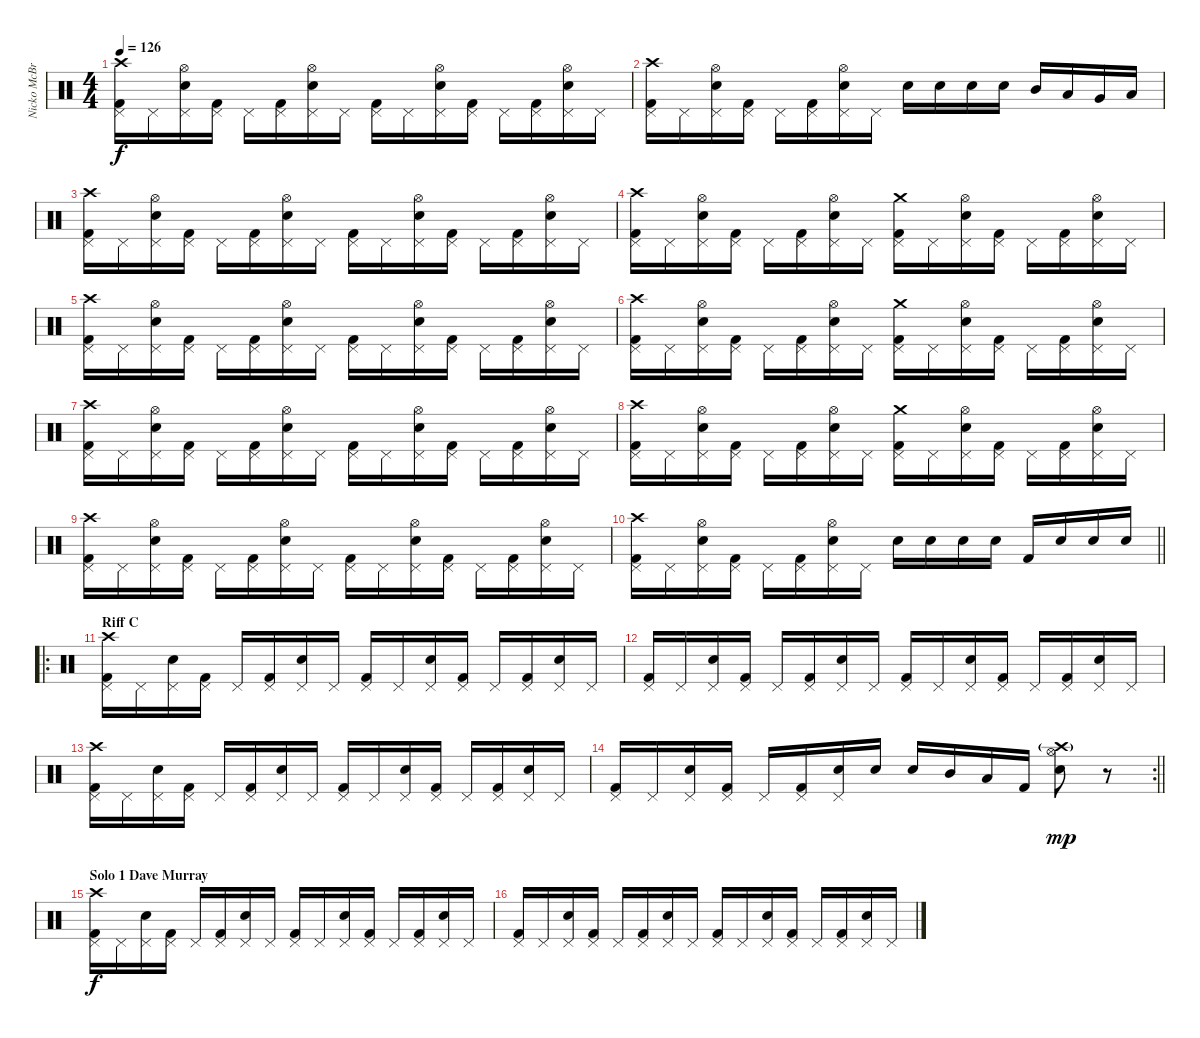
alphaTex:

\track ("Nicko McBrain" "Nicko McBr") {instrument percussion}
\staff {score}
\articulation defaults
\ts (4 4)
\tempo 126
\clef neutral
\ks c
("Kick (hit) 2" "Pedal Hi-Hat (hit)" "Crash high (hit)").16{dy f} "Pedal Hi-Hat (hit)".16 ("Snare (hit) 2" "Pedal Hi-Hat (hit)" "Hi-Hat (open)").16 ("Kick (hit) 2" "Pedal Hi-Hat (hit)").16 "Pedal Hi-Hat (hit)".16 ("Kick (hit) 2" "Pedal Hi-Hat (hit)").16 ("Snare (hit) 2" "Pedal Hi-Hat (hit)" "Hi-Hat (open)").16 "Pedal Hi-Hat (hit)".16 ("Kick (hit) 2" "Pedal Hi-Hat (hit)").16 "Pedal Hi-Hat (hit)".16 ("Snare (hit) 2" "Pedal Hi-Hat (hit)" "Hi-Hat (open)").16 ("Kick (hit) 2" "Pedal Hi-Hat (hit)").16 "Pedal Hi-Hat (hit)".16 ("Kick (hit) 2" "Pedal Hi-Hat (hit)").16 ("Snare (hit) 2" "Pedal Hi-Hat (hit)" "Hi-Hat (open)").16 "Pedal Hi-Hat (hit)".16 |
("Kick (hit) 2" "Pedal Hi-Hat (hit)" "Crash high (hit)").16 "Pedal Hi-Hat (hit)".16 ("Snare (hit) 2" "Pedal Hi-Hat (hit)" "Hi-Hat (open)").16 ("Kick (hit) 2" "Pedal Hi-Hat (hit)").16 "Pedal Hi-Hat (hit)".16 ("Kick (hit) 2" "Pedal Hi-Hat (hit)").16 ("Snare (hit) 2" "Pedal Hi-Hat (hit)" "Hi-Hat (open)").16 "Pedal Hi-Hat (hit)".16 "Snare (hit) 2".16 "Snare (hit) 2".16 "Snare (hit) 2".16 "Snare (hit) 2".16 "Mid Tom (hit)".16 "Low Tom (hit)".16 "Very Low Tom (hit)".16 "Low Floor Tom (hit)".16 |
("Kick (hit) 2" "Pedal Hi-Hat (hit)" "Crash high (hit)").16 "Pedal Hi-Hat (hit)".16 ("Snare (hit) 2" "Pedal Hi-Hat (hit)" "Hi-Hat (open)").16 ("Kick (hit) 2" "Pedal Hi-Hat (hit)").16 "Pedal Hi-Hat (hit)".16 ("Kick (hit) 2" "Pedal Hi-Hat (hit)").16 ("Snare (hit) 2" "Pedal Hi-Hat (hit)" "Hi-Hat (open)").16 "Pedal Hi-Hat (hit)".16 ("Kick (hit) 2" "Pedal Hi-Hat (hit)").16 "Pedal Hi-Hat (hit)".16 ("Snare (hit) 2" "Pedal Hi-Hat (hit)" "Hi-Hat (open)").16 ("Kick (hit) 2" "Pedal Hi-Hat (hit)").16 "Pedal Hi-Hat (hit)".16 ("Kick (hit) 2" "Pedal Hi-Hat (hit)").16 ("Snare (hit) 2" "Pedal Hi-Hat (hit)" "Hi-Hat (open)").16 "Pedal Hi-Hat (hit)".16 |
("Kick (hit) 2" "Pedal Hi-Hat (hit)" "Crash high (hit)").16 "Pedal Hi-Hat (hit)".16 ("Snare (hit) 2" "Pedal Hi-Hat (hit)" "Hi-Hat (open)").16 ("Kick (hit) 2" "Pedal Hi-Hat (hit)").16 "Pedal Hi-Hat (hit)".16 ("Kick (hit) 2" "Pedal Hi-Hat (hit)").16 ("Snare (hit) 2" "Pedal Hi-Hat (hit)" "Hi-Hat (open)").16 "Pedal Hi-Hat (hit)".16 ("Kick (hit) 2" "Pedal Hi-Hat (hit)" "Crash medium (hit)").16 "Pedal Hi-Hat (hit)".16 ("Snare (hit) 2" "Pedal Hi-Hat (hit)" "Hi-Hat (open)").16 ("Kick (hit) 2" "Pedal Hi-Hat (hit)").16 "Pedal Hi-Hat (hit)".16 ("Kick (hit) 2" "Pedal Hi-Hat (hit)").16 ("Snare (hit) 2" "Pedal Hi-Hat (hit)" "Hi-Hat (open)").16 "Pedal Hi-Hat (hit)".16 |
("Kick (hit) 2" "Pedal Hi-Hat (hit)" "Crash high (hit)").16 "Pedal Hi-Hat (hit)".16 ("Snare (hit) 2" "Pedal Hi-Hat (hit)" "Hi-Hat (open)").16 ("Kick (hit) 2" "Pedal Hi-Hat (hit)").16 "Pedal Hi-Hat (hit)".16 ("Kick (hit) 2" "Pedal Hi-Hat (hit)").16 ("Snare (hit) 2" "Pedal Hi-Hat (hit)" "Hi-Hat (open)").16 "Pedal Hi-Hat (hit)".16 ("Kick (hit) 2" "Pedal Hi-Hat (hit)").16 "Pedal Hi-Hat (hit)".16 ("Snare (hit) 2" "Pedal Hi-Hat (hit)" "Hi-Hat (open)").16 ("Kick (hit) 2" "Pedal Hi-Hat (hit)").16 "Pedal Hi-Hat (hit)".16 ("Kick (hit) 2" "Pedal Hi-Hat (hit)").16 ("Snare (hit) 2" "Pedal Hi-Hat (hit)" "Hi-Hat (open)").16 "Pedal Hi-Hat (hit)".16 |
("Kick (hit) 2" "Pedal Hi-Hat (hit)" "Crash high (hit)").16 "Pedal Hi-Hat (hit)".16 ("Snare (hit) 2" "Pedal Hi-Hat (hit)" "Hi-Hat (open)").16 ("Kick (hit) 2" "Pedal Hi-Hat (hit)").16 "Pedal Hi-Hat (hit)".16 ("Kick (hit) 2" "Pedal Hi-Hat (hit)").16 ("Snare (hit) 2" "Pedal Hi-Hat (hit)" "Hi-Hat (open)").16 "Pedal Hi-Hat (hit)".16 ("Kick (hit) 2" "Pedal Hi-Hat (hit)" "Crash medium (hit)").16 "Pedal Hi-Hat (hit)".16 ("Snare (hit) 2" "Pedal Hi-Hat (hit)" "Hi-Hat (open)").16 ("Kick (hit) 2" "Pedal Hi-Hat (hit)").16 "Pedal Hi-Hat (hit)".16 ("Kick (hit) 2" "Pedal Hi-Hat (hit)").16 ("Snare (hit) 2" "Pedal Hi-Hat (hit)" "Hi-Hat (open)").16 "Pedal Hi-Hat (hit)".16 |
("Kick (hit) 2" "Pedal Hi-Hat (hit)" "Crash high (hit)").16 "Pedal Hi-Hat (hit)".16 ("Snare (hit) 2" "Pedal Hi-Hat (hit)" "Hi-Hat (open)").16 ("Kick (hit) 2" "Pedal Hi-Hat (hit)").16 "Pedal Hi-Hat (hit)".16 ("Kick (hit) 2" "Pedal Hi-Hat (hit)").16 ("Snare (hit) 2" "Pedal Hi-Hat (hit)" "Hi-Hat (open)").16 "Pedal Hi-Hat (hit)".16 ("Kick (hit) 2" "Pedal Hi-Hat (hit)").16 "Pedal Hi-Hat (hit)".16 ("Snare (hit) 2" "Pedal Hi-Hat (hit)" "Hi-Hat (open)").16 ("Kick (hit) 2" "Pedal Hi-Hat (hit)").16 "Pedal Hi-Hat (hit)".16 ("Kick (hit) 2" "Pedal Hi-Hat (hit)").16 ("Snare (hit) 2" "Pedal Hi-Hat (hit)" "Hi-Hat (open)").16 "Pedal Hi-Hat (hit)".16 |
("Kick (hit) 2" "Pedal Hi-Hat (hit)" "Crash high (hit)").16 "Pedal Hi-Hat (hit)".16 ("Snare (hit) 2" "Pedal Hi-Hat (hit)" "Hi-Hat (open)").16 ("Kick (hit) 2" "Pedal Hi-Hat (hit)").16 "Pedal Hi-Hat (hit)".16 ("Kick (hit) 2" "Pedal Hi-Hat (hit)").16 ("Snare (hit) 2" "Pedal Hi-Hat (hit)" "Hi-Hat (open)").16 "Pedal Hi-Hat (hit)".16 ("Kick (hit) 2" "Pedal Hi-Hat (hit)" "Crash medium (hit)").16 "Pedal Hi-Hat (hit)".16 ("Snare (hit) 2" "Pedal Hi-Hat (hit)" "Hi-Hat (open)").16 ("Kick (hit) 2" "Pedal Hi-Hat (hit)").16 "Pedal Hi-Hat (hit)".16 ("Kick (hit) 2" "Pedal Hi-Hat (hit)").16 ("Snare (hit) 2" "Pedal Hi-Hat (hit)" "Hi-Hat (open)").16 "Pedal Hi-Hat (hit)".16 |
("Kick (hit) 2" "Pedal Hi-Hat (hit)" "Crash high (hit)").16 "Pedal Hi-Hat (hit)".16 ("Snare (hit) 2" "Pedal Hi-Hat (hit)" "Hi-Hat (open)").16 ("Kick (hit) 2" "Pedal Hi-Hat (hit)").16 "Pedal Hi-Hat (hit)".16 ("Kick (hit) 2" "Pedal Hi-Hat (hit)").16 ("Snare (hit) 2" "Pedal Hi-Hat (hit)" "Hi-Hat (open)").16 "Pedal Hi-Hat (hit)".16 ("Kick (hit) 2" "Pedal Hi-Hat (hit)").16 "Pedal Hi-Hat (hit)".16 ("Snare (hit) 2" "Pedal Hi-Hat (hit)" "Hi-Hat (open)").16 ("Kick (hit) 2" "Pedal Hi-Hat (hit)").16 "Pedal Hi-Hat (hit)".16 ("Kick (hit) 2" "Pedal Hi-Hat (hit)").16 ("Snare (hit) 2" "Pedal Hi-Hat (hit)" "Hi-Hat (open)").16 "Pedal Hi-Hat (hit)".16 |
\barLineRight lightlight
("Kick (hit) 2" "Pedal Hi-Hat (hit)" "Crash high (hit)").16 "Pedal Hi-Hat (hit)".16 ("Snare (hit) 2" "Pedal Hi-Hat (hit)" "Hi-Hat (open)").16 ("Kick (hit) 2" "Pedal Hi-Hat (hit)").16 "Pedal Hi-Hat (hit)".16 ("Kick (hit) 2" "Pedal Hi-Hat (hit)").16 ("Snare (hit) 2" "Pedal Hi-Hat (hit)" "Hi-Hat (open)").16 "Pedal Hi-Hat (hit)".16 "Snare (hit) 2".16 "Snare (hit) 2".16 "Snare (hit) 2".16 "Snare (hit) 2".16 "Kick (hit) 2".16 "Snare (hit) 2".16 "Snare (hit) 2".16 "Snare (hit) 2".16 |
\ro
\section ("" "Riff C")
("Kick (hit) 2" "Pedal Hi-Hat (hit)" "Crash high (hit)").16 "Pedal Hi-Hat (hit)".16 ("Snare (hit) 2" "Pedal Hi-Hat (hit)").16 ("Kick (hit) 2" "Pedal Hi-Hat (hit)").16 "Pedal Hi-Hat (hit)".16 ("Kick (hit) 2" "Pedal Hi-Hat (hit)").16 ("Snare (hit) 2" "Pedal Hi-Hat (hit)").16 "Pedal Hi-Hat (hit)".16 ("Kick (hit) 2" "Pedal Hi-Hat (hit)").16 "Pedal Hi-Hat (hit)".16 ("Snare (hit) 2" "Pedal Hi-Hat (hit)").16 ("Kick (hit) 2" "Pedal Hi-Hat (hit)").16 "Pedal Hi-Hat (hit)".16 ("Kick (hit) 2" "Pedal Hi-Hat (hit)").16 ("Snare (hit) 2" "Pedal Hi-Hat (hit)").16 "Pedal Hi-Hat (hit)".16 |
("Kick (hit) 2" "Pedal Hi-Hat (hit)").16 "Pedal Hi-Hat (hit)".16 ("Snare (hit) 2" "Pedal Hi-Hat (hit)").16 ("Kick (hit) 2" "Pedal Hi-Hat (hit)").16 "Pedal Hi-Hat (hit)".16 ("Kick (hit) 2" "Pedal Hi-Hat (hit)").16 ("Snare (hit) 2" "Pedal Hi-Hat (hit)").16 "Pedal Hi-Hat (hit)".16 ("Kick (hit) 2" "Pedal Hi-Hat (hit)").16 "Pedal Hi-Hat (hit)".16 ("Snare (hit) 2" "Pedal Hi-Hat (hit)").16 ("Kick (hit) 2" "Pedal Hi-Hat (hit)").16 "Pedal Hi-Hat (hit)".16 ("Kick (hit) 2" "Pedal Hi-Hat (hit)").16 ("Snare (hit) 2" "Pedal Hi-Hat (hit)").16 "Pedal Hi-Hat (hit)".16 |
("Kick (hit) 2" "Pedal Hi-Hat (hit)" "Crash high (hit)").16 "Pedal Hi-Hat (hit)".16 ("Snare (hit) 2" "Pedal Hi-Hat (hit)").16 ("Kick (hit) 2" "Pedal Hi-Hat (hit)").16 "Pedal Hi-Hat (hit)".16 ("Kick (hit) 2" "Pedal Hi-Hat (hit)").16 ("Snare (hit) 2" "Pedal Hi-Hat (hit)").16 "Pedal Hi-Hat (hit)".16 ("Kick (hit) 2" "Pedal Hi-Hat (hit)").16 "Pedal Hi-Hat (hit)".16 ("Snare (hit) 2" "Pedal Hi-Hat (hit)").16 ("Kick (hit) 2" "Pedal Hi-Hat (hit)").16 "Pedal Hi-Hat (hit)".16 ("Kick (hit) 2" "Pedal Hi-Hat (hit)").16 ("Snare (hit) 2" "Pedal Hi-Hat (hit)").16 "Pedal Hi-Hat (hit)".16 |
\rc 2
\barLineRight lightlight
("Kick (hit) 2" "Pedal Hi-Hat (hit)").16 "Pedal Hi-Hat (hit)".16 ("Snare (hit) 2" "Pedal Hi-Hat (hit)").16 ("Kick (hit) 2" "Pedal Hi-Hat (hit)").16 "Pedal Hi-Hat (hit)".16 ("Kick (hit) 2" "Pedal Hi-Hat (hit)").16 ("Snare (hit) 2" "Pedal Hi-Hat (hit)").16 "Snare (hit) 2".16 "Snare (hit) 2".16 "Mid Tom (hit)".16 "Low Tom (hit)".16 "Kick (hit) 2".16 ("Snare (hit) 2" "Hi-Hat (open)" "Crash high (hit)"{g}).8{dy mp} r.8 |
\section ("" "Solo 1 Dave Murray")
("Kick (hit) 2" "Pedal Hi-Hat (hit)" "Crash high (hit)").16{dy f} "Pedal Hi-Hat (hit)".16 ("Snare (hit) 2" "Pedal Hi-Hat (hit)").16 ("Kick (hit) 2" "Pedal Hi-Hat (hit)").16 "Pedal Hi-Hat (hit)".16 ("Kick (hit) 2" "Pedal Hi-Hat (hit)").16 ("Snare (hit) 2" "Pedal Hi-Hat (hit)").16 "Pedal Hi-Hat (hit)".16 ("Kick (hit) 2" "Pedal Hi-Hat (hit)").16 "Pedal Hi-Hat (hit)".16 ("Snare (hit) 2" "Pedal Hi-Hat (hit)").16 ("Kick (hit) 2" "Pedal Hi-Hat (hit)").16 "Pedal Hi-Hat (hit)".16 ("Kick (hit) 2" "Pedal Hi-Hat (hit)").16 ("Snare (hit) 2" "Pedal Hi-Hat (hit)").16 "Pedal Hi-Hat (hit)".16 |
("Kick (hit) 2" "Pedal Hi-Hat (hit)").16 "Pedal Hi-Hat (hit)".16 ("Snare (hit) 2" "Pedal Hi-Hat (hit)").16 ("Kick (hit) 2" "Pedal Hi-Hat (hit)").16 "Pedal Hi-Hat (hit)".16 ("Kick (hit) 2" "Pedal Hi-Hat (hit)").16 ("Snare (hit) 2" "Pedal Hi-Hat (hit)").16 "Pedal Hi-Hat (hit)".16 ("Kick (hit) 2" "Pedal Hi-Hat (hit)").16 "Pedal Hi-Hat (hit)".16 ("Snare (hit) 2" "Pedal Hi-Hat (hit)").16 ("Kick (hit) 2" "Pedal Hi-Hat (hit)").16 "Pedal Hi-Hat (hit)".16 ("Kick (hit) 2" "Pedal Hi-Hat (hit)").16 ("Snare (hit) 2" "Pedal Hi-Hat (hit)").16 "Pedal Hi-Hat (hit)".16
